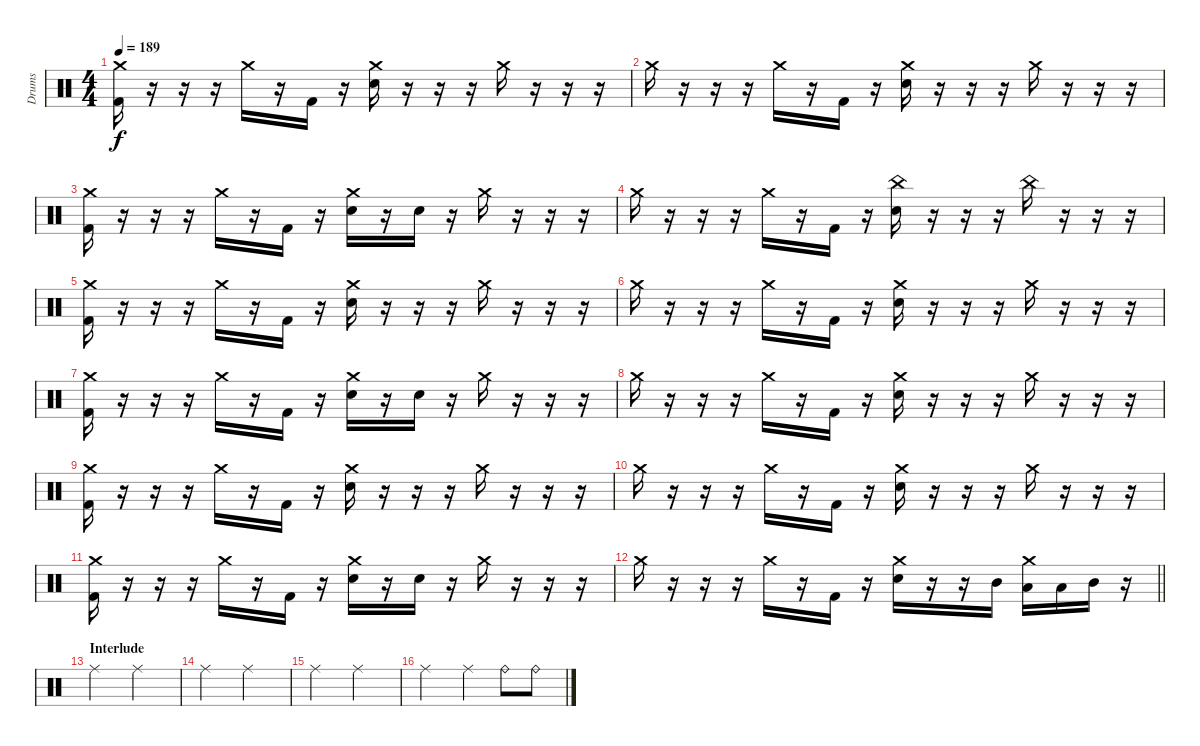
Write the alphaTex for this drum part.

\track ("Drums" "Drums") {instrument percussion}
\staff {score}
\articulation defaults
\ts (4 4)
\tempo 189
\clef neutral
\ks c
("Crash medium (hit)" "Kick (hit) 2").16{dy f} r.16 r.16 r.16 "Crash medium (hit)".16 r.16 "Kick (hit) 2".16 r.16 ("Crash medium (hit)" "Electric Snare (hit)").16 r.16 r.16 r.16 "Crash medium (hit)".16 r.16 r.16 r.16 |
"Crash medium (hit)".16 r.16 r.16 r.16 "Crash medium (hit)".16 r.16 "Kick (hit) 2".16 r.16 ("Crash medium (hit)" "Electric Snare (hit)").16 r.16 r.16 r.16 "Crash medium (hit)".16 r.16 r.16 r.16 |
("Crash medium (hit)" "Kick (hit) 2").16 r.16 r.16 r.16 "Crash medium (hit)".16 r.16 "Kick (hit) 2".16 r.16 ("Crash medium (hit)" "Electric Snare (hit)").16 r.16 "Electric Snare (hit)".16 r.16 "Crash medium (hit)".16 r.16 r.16 r.16 |
"Crash medium (hit)".16 r.16 r.16 r.16 "Crash medium (hit)".16 r.16 "Kick (hit) 2".16 r.16 ("China (hit)" "Electric Snare (hit)").16 r.16 r.16 r.16 "China (hit)".16 r.16 r.16 r.16 |
("Crash medium (hit)" "Kick (hit) 2").16 r.16 r.16 r.16 "Crash medium (hit)".16 r.16 "Kick (hit) 2".16 r.16 ("Crash medium (hit)" "Electric Snare (hit)").16 r.16 r.16 r.16 "Crash medium (hit)".16 r.16 r.16 r.16 |
"Crash medium (hit)".16 r.16 r.16 r.16 "Crash medium (hit)".16 r.16 "Kick (hit) 2".16 r.16 ("Crash medium (hit)" "Electric Snare (hit)").16 r.16 r.16 r.16 "Crash medium (hit)".16 r.16 r.16 r.16 |
("Crash medium (hit)" "Kick (hit) 2").16 r.16 r.16 r.16 "Crash medium (hit)".16 r.16 "Kick (hit) 2".16 r.16 ("Crash medium (hit)" "Electric Snare (hit)").16 r.16 "Electric Snare (hit)".16 r.16 "Crash medium (hit)".16 r.16 r.16 r.16 |
"Crash medium (hit)".16 r.16 r.16 r.16 "Crash medium (hit)".16 r.16 "Kick (hit) 2".16 r.16 ("Crash medium (hit)" "Electric Snare (hit)").16 r.16 r.16 r.16 "Crash medium (hit)".16 r.16 r.16 r.16 |
("Crash medium (hit)" "Kick (hit) 2").16 r.16 r.16 r.16 "Crash medium (hit)".16 r.16 "Kick (hit) 2".16 r.16 ("Crash medium (hit)" "Electric Snare (hit)").16 r.16 r.16 r.16 "Crash medium (hit)".16 r.16 r.16 r.16 |
"Crash medium (hit)".16 r.16 r.16 r.16 "Crash medium (hit)".16 r.16 "Kick (hit) 2".16 r.16 ("Crash medium (hit)" "Electric Snare (hit)").16 r.16 r.16 r.16 "Crash medium (hit)".16 r.16 r.16 r.16 |
("Crash medium (hit)" "Kick (hit) 2").16 r.16 r.16 r.16 "Crash medium (hit)".16 r.16 "Kick (hit) 2".16 r.16 ("Crash medium (hit)" "Electric Snare (hit)").16 r.16 "Electric Snare (hit)".16 r.16 "Crash medium (hit)".16 r.16 r.16 r.16 |
\barLineRight lightlight "Crash medium (hit)".16
r.16 r.16 r.16 "Crash medium (hit)".16 r.16 "Kick (hit) 2".16 r.16 ("Crash medium (hit)" "Electric Snare (hit)").16 r.16 r.16 "Mid Tom (hit)".16 ("Crash medium (hit)" "Low Tom (hit)").16 "Low Floor Tom (hit)".16 "Mid Tom (hit)".16 r.16 |
\section ("" "Interlude")
"Ride (middle)".2 "Ride (middle)".2 |
"Ride (middle)".2 "Ride (middle)".2 |
"Ride (middle)".2 "Ride (middle)".2 |
"Ride (middle)".2 "Ride (middle)".4 "Ride (bell)".8 "Ride (bell)".8
